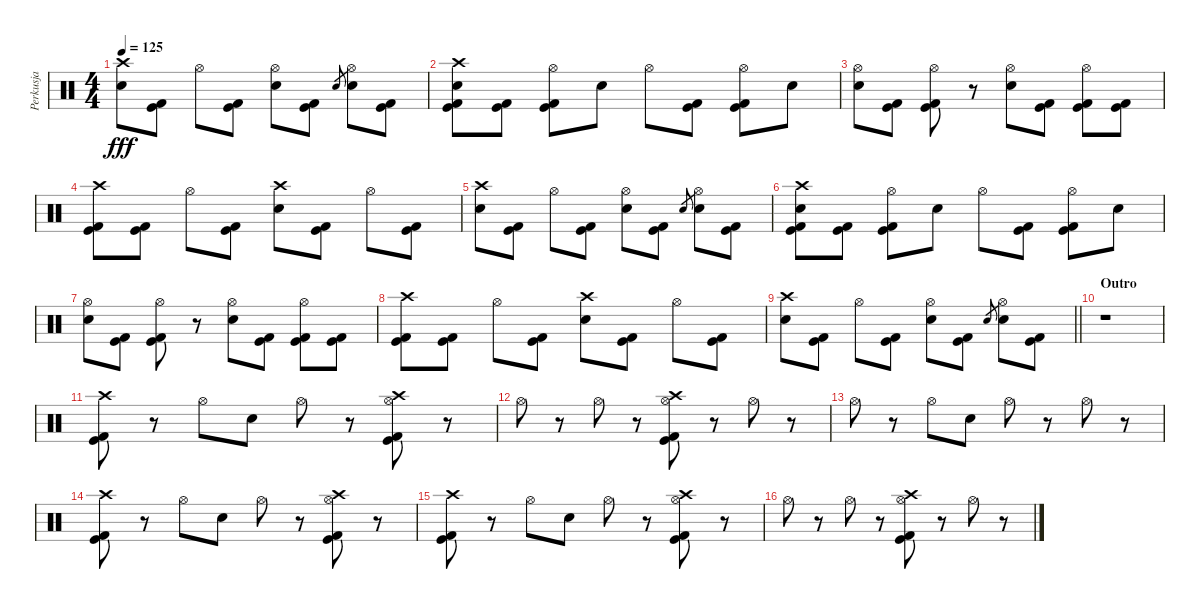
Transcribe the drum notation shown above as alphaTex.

\track ("Perkusja" "Perkusja") {instrument percussion}
\staff {score}
\articulation defaults
\ts (4 4)
\tempo 125
\clef neutral
\ks c
("Crash high (hit)" "Electric Snare (hit)").8{dy fff} ("Kick (hit)" "Kick (hit) 2").8 "Hi-Hat (open)".8 ("Kick (hit)" "Kick (hit) 2").8 ("Hi-Hat (open)" "Electric Snare (hit)").8 ("Kick (hit)" "Kick (hit) 2").8 "Electric Snare (hit)".8{gr} ("Hi-Hat (open)" "Electric Snare (hit)").8 ("Kick (hit)" "Kick (hit) 2").8 |
("Crash high (hit)" "Electric Snare (hit)" "Kick (hit)" "Kick (hit) 2").8 ("Kick (hit)" "Kick (hit) 2").8 ("Hi-Hat (open)" "Kick (hit)" "Kick (hit) 2").8 "Electric Snare (hit)".8 "Hi-Hat (open)".8 ("Kick (hit)" "Kick (hit) 2").8 ("Hi-Hat (open)" "Kick (hit)" "Kick (hit) 2").8 "Electric Snare (hit)".8 |
("Hi-Hat (open)" "Electric Snare (hit)").8 ("Kick (hit)" "Kick (hit) 2").8 ("Hi-Hat (open)" "Kick (hit)" "Kick (hit) 2").8 r.8 ("Hi-Hat (open)" "Electric Snare (hit)").8 ("Kick (hit)" "Kick (hit) 2").8 ("Hi-Hat (open)" "Kick (hit)" "Kick (hit) 2").8 ("Kick (hit)" "Kick (hit) 2").8 |
("Crash high (hit)" "Kick (hit)" "Kick (hit) 2").8 ("Kick (hit)" "Kick (hit) 2").8 "Hi-Hat (open)".8 ("Kick (hit)" "Kick (hit) 2").8 ("Crash high (hit)" "Electric Snare (hit)").8 ("Kick (hit)" "Kick (hit) 2").8 "Hi-Hat (open)".8 ("Kick (hit)" "Kick (hit) 2").8 |
("Crash high (hit)" "Electric Snare (hit)").8 ("Kick (hit)" "Kick (hit) 2").8 "Hi-Hat (open)".8 ("Kick (hit)" "Kick (hit) 2").8 ("Hi-Hat (open)" "Electric Snare (hit)").8 ("Kick (hit)" "Kick (hit) 2").8 "Electric Snare (hit)".8{gr} ("Hi-Hat (open)" "Electric Snare (hit)").8 ("Kick (hit)" "Kick (hit) 2").8 |
("Crash high (hit)" "Electric Snare (hit)" "Kick (hit)" "Kick (hit) 2").8 ("Kick (hit)" "Kick (hit) 2").8 ("Hi-Hat (open)" "Kick (hit)" "Kick (hit) 2").8 "Electric Snare (hit)".8 "Hi-Hat (open)".8 ("Kick (hit)" "Kick (hit) 2").8 ("Hi-Hat (open)" "Kick (hit)" "Kick (hit) 2").8 "Electric Snare (hit)".8 |
("Hi-Hat (open)" "Electric Snare (hit)").8 ("Kick (hit)" "Kick (hit) 2").8 ("Hi-Hat (open)" "Kick (hit)" "Kick (hit) 2").8 r.8 ("Hi-Hat (open)" "Electric Snare (hit)").8 ("Kick (hit)" "Kick (hit) 2").8 ("Hi-Hat (open)" "Kick (hit)" "Kick (hit) 2").8 ("Kick (hit)" "Kick (hit) 2").8 |
("Crash high (hit)" "Kick (hit)" "Kick (hit) 2").8 ("Kick (hit)" "Kick (hit) 2").8 "Hi-Hat (open)".8 ("Kick (hit)" "Kick (hit) 2").8 ("Crash high (hit)" "Electric Snare (hit)").8 ("Kick (hit)" "Kick (hit) 2").8 "Hi-Hat (open)".8 ("Kick (hit)" "Kick (hit) 2").8 |
\barLineRight lightlight
("Crash high (hit)" "Electric Snare (hit)").8 ("Kick (hit)" "Kick (hit) 2").8 "Hi-Hat (open)".8 ("Kick (hit)" "Kick (hit) 2").8 ("Hi-Hat (open)" "Electric Snare (hit)").8 ("Kick (hit)" "Kick (hit) 2").8 "Electric Snare (hit)".8{gr} ("Hi-Hat (open)" "Electric Snare (hit)").8 ("Kick (hit)" "Kick (hit) 2").8 |
\section ("" "Outro")
r.1 |
("Crash high (hit)" "Kick (hit)" "Kick (hit) 2").8 r.8 "Hi-Hat (open)".8 "Electric Snare (hit)".8 "Hi-Hat (open)".8 r.8 ("Hi-Hat (open)" "Crash high (hit)" "Kick (hit)" "Kick (hit) 2").8 r.8 |
"Hi-Hat (open)".8 r.8 "Hi-Hat (open)".8 r.8 ("Hi-Hat (open)" "Crash high (hit)" "Kick (hit)" "Kick (hit) 2").8 r.8 "Hi-Hat (open)".8 r.8 |
"Hi-Hat (open)".8 r.8 "Hi-Hat (open)".8 "Electric Snare (hit)".8 "Hi-Hat (open)".8 r.8 "Hi-Hat (open)".8 r.8 |
("Crash high (hit)" "Kick (hit)" "Kick (hit) 2").8 r.8 "Hi-Hat (open)".8 "Electric Snare (hit)".8 "Hi-Hat (open)".8 r.8 ("Hi-Hat (open)" "Crash high (hit)" "Kick (hit)" "Kick (hit) 2").8 r.8 |
("Crash high (hit)" "Kick (hit)" "Kick (hit) 2").8 r.8 "Hi-Hat (open)".8 "Electric Snare (hit)".8 "Hi-Hat (open)".8 r.8 ("Hi-Hat (open)" "Crash high (hit)" "Kick (hit)" "Kick (hit) 2").8 r.8 |
"Hi-Hat (open)".8 r.8 "Hi-Hat (open)".8 r.8 ("Hi-Hat (open)" "Crash high (hit)" "Kick (hit)" "Kick (hit) 2").8 r.8 "Hi-Hat (open)".8 r.8
